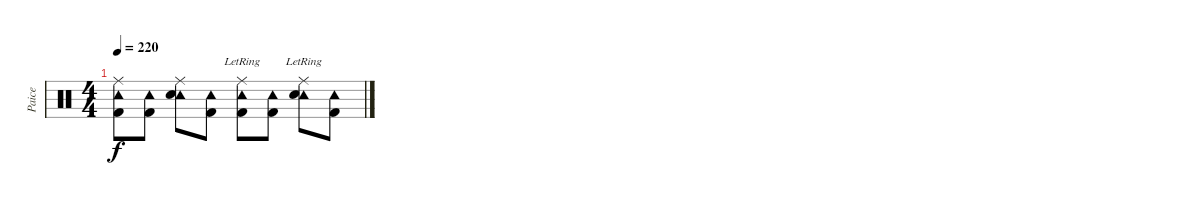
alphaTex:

\track ("Paice" "Paice") {instrument percussion}
\staff {score}
\articulation defaults
\ts (4 4)
\tempo 220
\clef neutral
\ks c
("Ride (middle)" "Tambourine (hit)" "Kick (hit) 2").8{dy f} ("Tambourine (hit)" "Kick (hit) 2").8 ("Ride (middle)" "Tambourine (hit)" "Snare (hit) 2").8 ("Tambourine (hit)" "Kick (hit) 2").8 ("Ride (middle)"{lr} "Tambourine (hit)" "Kick (hit) 2").8 ("Tambourine (hit)" "Kick (hit) 2").8 ("Ride (middle)"{lr} "Tambourine (hit)" "Snare (hit) 2").8 ("Tambourine (hit)" "Kick (hit) 2").8
